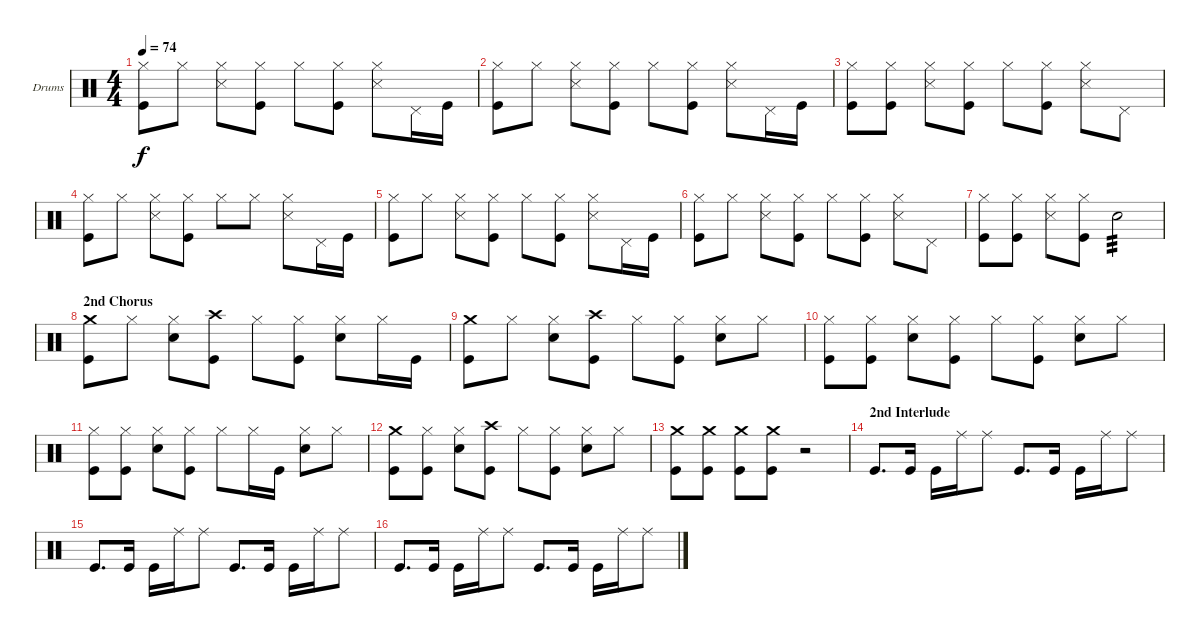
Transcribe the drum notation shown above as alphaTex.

\bracketExtendMode groupsimilarinstruments
\firstSystemTrackNameOrientation horizontal
\otherSystemsTrackNameOrientation horizontal
\track ("Drumkit" "Drums") {instrument percussion}
\staff {score}
\articulation defaults
\ts (4 4)
\tempo 74
\clef neutral
\ks c
("Hi-Hat (closed)" "Kick (hit)").8{dy f} "Hi-Hat (closed)".8 ("Hi-Hat (closed)" "Snare (side stick) 3").8 ("Hi-Hat (closed)" "Kick (hit)").8 "Hi-Hat (closed)".8 ("Hi-Hat (closed)" "Kick (hit)").8 ("Hi-Hat (closed)" "Snare (side stick) 3").8 "Pedal Hi-Hat (hit)".16 "Kick (hit)".16 |
("Hi-Hat (closed)" "Kick (hit)").8 "Hi-Hat (closed)".8 ("Hi-Hat (closed)" "Snare (side stick) 3").8 ("Hi-Hat (closed)" "Kick (hit)").8 "Hi-Hat (closed)".8 ("Hi-Hat (closed)" "Kick (hit)").8 ("Hi-Hat (closed)" "Snare (side stick) 3").8 "Pedal Hi-Hat (hit)".16 "Kick (hit)".16 |
("Hi-Hat (closed)" "Kick (hit)").8 ("Hi-Hat (closed)" "Kick (hit)").8 ("Hi-Hat (closed)" "Snare (side stick) 3").8 ("Hi-Hat (closed)" "Kick (hit)").8 "Hi-Hat (closed)".8 ("Hi-Hat (closed)" "Kick (hit)").8 ("Hi-Hat (closed)" "Snare (side stick) 3").8 "Pedal Hi-Hat (hit)".8 |
("Hi-Hat (closed)" "Kick (hit)").8 "Hi-Hat (closed)".8 ("Hi-Hat (closed)" "Snare (side stick) 3").8 ("Hi-Hat (closed)" "Kick (hit)").8 "Hi-Hat (closed)".8 "Hi-Hat (closed)".8 ("Hi-Hat (closed)" "Snare (side stick) 3").8 "Pedal Hi-Hat (hit)".16 "Kick (hit)".16 |
("Hi-Hat (closed)" "Kick (hit)").8 "Hi-Hat (closed)".8 ("Hi-Hat (closed)" "Snare (side stick) 3").8 ("Hi-Hat (closed)" "Kick (hit)").8 "Hi-Hat (closed)".8 ("Hi-Hat (closed)" "Kick (hit)").8 ("Hi-Hat (closed)" "Snare (side stick) 3").8 "Pedal Hi-Hat (hit)".16 "Kick (hit)".16 |
("Hi-Hat (closed)" "Kick (hit)").8 "Hi-Hat (closed)".8 ("Hi-Hat (closed)" "Snare (side stick) 3").8 ("Hi-Hat (closed)" "Kick (hit)").8 "Hi-Hat (closed)".8 ("Hi-Hat (closed)" "Kick (hit)").8 ("Hi-Hat (closed)" "Snare (side stick) 3").8 "Pedal Hi-Hat (hit)".8 |
("Hi-Hat (closed)" "Kick (hit)").8 ("Hi-Hat (closed)" "Kick (hit)").8 ("Hi-Hat (closed)" "Snare (side stick) 3").8 ("Hi-Hat (closed)" "Kick (hit)").8 "Snare (hit) 2".2{tp 3} |
\section ("" "2nd Chorus")
("Crash medium (hit)" "Kick (hit)").8 "Hi-Hat (closed)".8 ("Hi-Hat (closed)" "Snare (hit) 2").8 ("Crash high (hit)" "Kick (hit)").8 "Hi-Hat (closed)".8 ("Hi-Hat (closed)" "Kick (hit)").8 ("Hi-Hat (closed)" "Snare (hit) 2").8 "Hi-Hat (closed)".16 "Kick (hit)".16 |
("Crash medium (hit)" "Kick (hit)").8 "Hi-Hat (closed)".8 ("Hi-Hat (closed)" "Snare (hit) 2").8 ("Crash high (hit)" "Kick (hit)").8 "Hi-Hat (closed)".8 ("Hi-Hat (closed)" "Kick (hit)").8 ("Hi-Hat (closed)" "Snare (hit) 2").8 "Hi-Hat (closed)".8 |
("Hi-Hat (closed)" "Kick (hit)").8 ("Hi-Hat (closed)" "Kick (hit)").8 ("Hi-Hat (closed)" "Snare (hit) 2").8 ("Hi-Hat (closed)" "Kick (hit)").8 "Hi-Hat (closed)".8 ("Hi-Hat (closed)" "Kick (hit)").8 ("Hi-Hat (closed)" "Snare (hit) 2").8 "Hi-Hat (closed)".8 |
("Hi-Hat (closed)" "Kick (hit)").8 ("Hi-Hat (closed)" "Kick (hit)").8 ("Hi-Hat (closed)" "Snare (hit) 2").8 ("Hi-Hat (closed)" "Kick (hit)").8 "Hi-Hat (closed)".8 "Hi-Hat (closed)".16 "Kick (hit)".16 ("Hi-Hat (closed)" "Snare (hit) 2").8 "Hi-Hat (closed)".8 |
("Crash medium (hit)" "Kick (hit)").8 ("Hi-Hat (closed)" "Kick (hit)").8 ("Hi-Hat (closed)" "Snare (hit) 2").8 ("Crash high (hit)" "Kick (hit)").8 "Hi-Hat (closed)".8 ("Hi-Hat (closed)" "Kick (hit)").8 ("Hi-Hat (closed)" "Snare (hit) 2").8 "Hi-Hat (closed)".8 |
("Crash medium (hit)" "Kick (hit)").8 ("Crash medium (hit)" "Kick (hit)").8 ("Crash medium (hit)" "Kick (hit)").8 ("Crash medium (hit)" "Kick (hit)").8 r.2 |
\section ("" "2nd Interlude")
"Kick (hit)".8{d} "Kick (hit)".16 "Kick (hit)".16 "Ride (middle)".16 "Ride (middle)".8 "Kick (hit)".8{d} "Kick (hit)".16 "Kick (hit)".16 "Ride (middle)".16 "Ride (middle)".8 |
"Kick (hit)".8{d} "Kick (hit)".16 "Kick (hit)".16 "Ride (middle)".16 "Ride (middle)".8 "Kick (hit)".8{d} "Kick (hit)".16 "Kick (hit)".16 "Ride (middle)".16 "Ride (middle)".8 |
"Kick (hit)".8{d} "Kick (hit)".16 "Kick (hit)".16 "Ride (middle)".16 "Ride (middle)".8 "Kick (hit)".8{d} "Kick (hit)".16 "Kick (hit)".16 "Ride (middle)".16 "Ride (middle)".8
